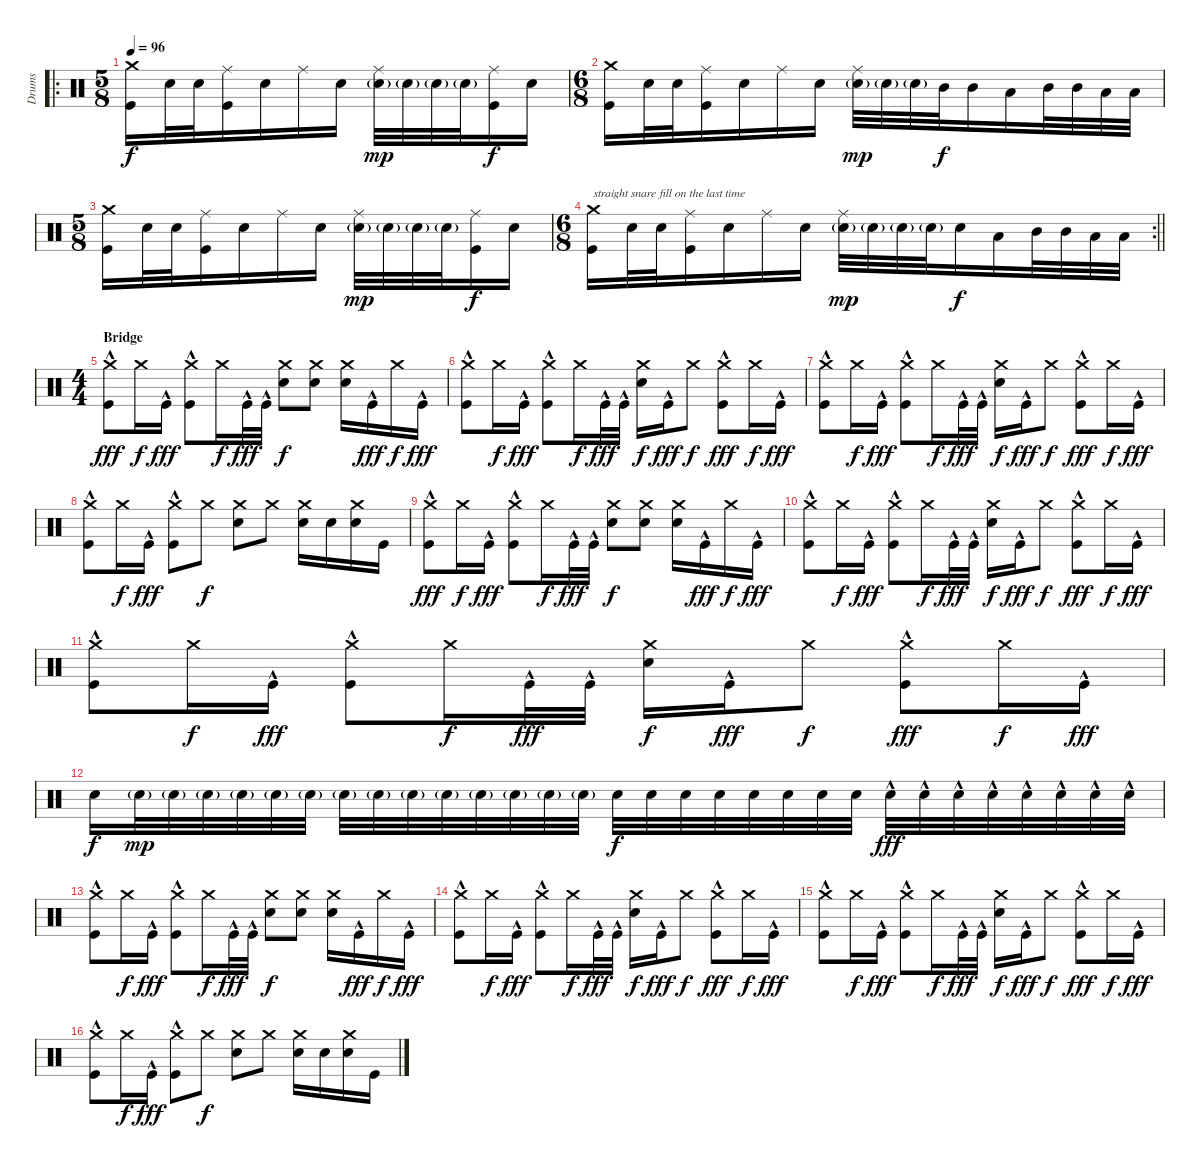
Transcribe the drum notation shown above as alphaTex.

\track ("Drums" "Drums") {instrument percussion}
\staff {score}
\articulation defaults
\ro
\ts (5 8)
\tempo 96
\clef neutral
\ks c
("Crash medium (hit)" "Kick (hit)").16{dy f} "Electric Snare (hit)".32 "Electric Snare (hit)".32 ("Ride (middle)" "Kick (hit)").16 "Electric Snare (hit)".16 "Ride (middle)".16 "Electric Snare (hit)".16 ("Ride (middle)" "Electric Snare (hit)"{g}).32{dy mp} "Electric Snare (hit)"{g}.32 "Electric Snare (hit)"{g}.32 "Electric Snare (hit)"{g}.32 ("Ride (middle)" "Kick (hit)").16{dy f} "Electric Snare (hit)".16 |
\ts (6 8)
("Crash medium (hit)" "Kick (hit)").16 "Electric Snare (hit)".32 "Electric Snare (hit)".32 ("Ride (middle)" "Kick (hit)").16 "Electric Snare (hit)".16 "Ride (middle)".16 "Electric Snare (hit)".16 ("Ride (middle)" "Electric Snare (hit)"{g}).32{dy mp} "Electric Snare (hit)"{g}.32 "Electric Snare (hit)"{g}.32 "Mid Tom (hit)".32{dy f} "Mid Tom (hit)".16 "Low Tom (hit)".16 "Mid Tom (hit)".32 "Mid Tom (hit)".32 "Low Tom (hit)".32 "Low Tom (hit)".32 |
\ts (5 8)
("Crash medium (hit)" "Kick (hit)").16 "Electric Snare (hit)".32 "Electric Snare (hit)".32 ("Ride (middle)" "Kick (hit)").16 "Electric Snare (hit)".16 "Ride (middle)".16 "Electric Snare (hit)".16 ("Ride (middle)" "Electric Snare (hit)"{g}).32{dy mp} "Electric Snare (hit)"{g}.32 "Electric Snare (hit)"{g}.32 "Electric Snare (hit)"{g}.32 ("Ride (middle)" "Kick (hit)").16{dy f} "Electric Snare (hit)".16 |
\rc 2
\ts (6 8)
\barLineRight lightlight
("Crash medium (hit)" "Kick (hit)").16{txt "straight snare fill on the last time"} "Electric Snare (hit)".32 "Electric Snare (hit)".32 ("Ride (middle)" "Kick (hit)").16 "Electric Snare (hit)".16 "Ride (middle)".16 "Electric Snare (hit)".16 ("Ride (middle)" "Electric Snare (hit)"{g}).32{dy mp} "Electric Snare (hit)"{g}.32 "Electric Snare (hit)"{g}.32 "Electric Snare (hit)"{g}.32 "Electric Snare (hit)".16{dy f} "Low Tom (hit)".16 "Mid Tom (hit)".32 "Mid Tom (hit)".32 "Low Tom (hit)".32 "Low Tom (hit)".32 |
\ts (4 4)
\section ("" "Bridge")
("Crash medium (hit)" "Kick (hit)"{hac}).8{dy fff} "Crash medium (hit)".16{dy f} "Kick (hit)"{hac}.16{dy fff} ("Crash medium (hit)" "Kick (hit)"{hac}).8 "Crash medium (hit)".16{dy f} "Kick (hit)"{hac}.32{dy fff} "Kick (hit)"{hac}.32 ("Crash medium (hit)" "Electric Snare (hit)").8{dy f} ("Crash medium (hit)" "Electric Snare (hit)").8 ("Crash medium (hit)" "Electric Snare (hit)").16 "Kick (hit)"{hac}.16{dy fff} "Crash medium (hit)".16{dy f} "Kick (hit)"{hac}.16{dy fff} |
("Crash medium (hit)" "Kick (hit)"{hac}).8 "Crash medium (hit)".16{dy f} "Kick (hit)"{hac}.16{dy fff} ("Crash medium (hit)" "Kick (hit)"{hac}).8 "Crash medium (hit)".16{dy f} "Kick (hit)"{hac}.32{dy fff} "Kick (hit)"{hac}.32 ("Crash medium (hit)" "Electric Snare (hit)").16{dy f} "Kick (hit)"{hac}.16{dy fff} "Crash medium (hit)".8{dy f} ("Crash medium (hit)" "Kick (hit)"{hac}).8{dy fff} "Crash medium (hit)".16{dy f} "Kick (hit)"{hac}.16{dy fff} |
("Crash medium (hit)" "Kick (hit)"{hac}).8 "Crash medium (hit)".16{dy f} "Kick (hit)"{hac}.16{dy fff} ("Crash medium (hit)" "Kick (hit)"{hac}).8 "Crash medium (hit)".16{dy f} "Kick (hit)"{hac}.32{dy fff} "Kick (hit)"{hac}.32 ("Crash medium (hit)" "Electric Snare (hit)").16{dy f} "Kick (hit)"{hac}.16{dy fff} "Crash medium (hit)".8{dy f} ("Crash medium (hit)" "Kick (hit)"{hac}).8{dy fff} "Crash medium (hit)".16{dy f} "Kick (hit)"{hac}.16{dy fff} |
("Crash medium (hit)" "Kick (hit)"{hac}).8 "Crash medium (hit)".16{dy f} "Kick (hit)"{hac}.16{dy fff} ("Crash medium (hit)" "Kick (hit)"{hac}).8 "Crash medium (hit)".8{dy f} ("Crash medium (hit)" "Electric Snare (hit)").8 "Crash medium (hit)".8 ("Crash medium (hit)" "Electric Snare (hit)").16 "Electric Snare (hit)".16 ("Crash medium (hit)" "Electric Snare (hit)").16 "Kick (hit)".16 |
("Crash medium (hit)" "Kick (hit)"{hac}).8{dy fff} "Crash medium (hit)".16{dy f} "Kick (hit)"{hac}.16{dy fff} ("Crash medium (hit)" "Kick (hit)"{hac}).8 "Crash medium (hit)".16{dy f} "Kick (hit)"{hac}.32{dy fff} "Kick (hit)"{hac}.32 ("Crash medium (hit)" "Electric Snare (hit)").8{dy f} ("Crash medium (hit)" "Electric Snare (hit)").8 ("Crash medium (hit)" "Electric Snare (hit)").16 "Kick (hit)"{hac}.16{dy fff} "Crash medium (hit)".16{dy f} "Kick (hit)"{hac}.16{dy fff} |
("Crash medium (hit)" "Kick (hit)"{hac}).8 "Crash medium (hit)".16{dy f} "Kick (hit)"{hac}.16{dy fff} ("Crash medium (hit)" "Kick (hit)"{hac}).8 "Crash medium (hit)".16{dy f} "Kick (hit)"{hac}.32{dy fff} "Kick (hit)"{hac}.32 ("Crash medium (hit)" "Electric Snare (hit)").16{dy f} "Kick (hit)"{hac}.16{dy fff} "Crash medium (hit)".8{dy f} ("Crash medium (hit)" "Kick (hit)"{hac}).8{dy fff} "Crash medium (hit)".16{dy f} "Kick (hit)"{hac}.16{dy fff} |
("Crash medium (hit)" "Kick (hit)"{hac}).8 "Crash medium (hit)".16{dy f} "Kick (hit)"{hac}.16{dy fff} ("Crash medium (hit)" "Kick (hit)"{hac}).8 "Crash medium (hit)".16{dy f} "Kick (hit)"{hac}.32{dy fff} "Kick (hit)"{hac}.32 ("Crash medium (hit)" "Electric Snare (hit)").16{dy f} "Kick (hit)"{hac}.16{dy fff} "Crash medium (hit)".8{dy f} ("Crash medium (hit)" "Kick (hit)"{hac}).8{dy fff} "Crash medium (hit)".16{dy f} "Kick (hit)"{hac}.16{dy fff} |
"Electric Snare (hit)".16{dy f} "Electric Snare (hit)"{g}.32{dy mp} "Electric Snare (hit)"{g}.32 "Electric Snare (hit)"{g}.32 "Electric Snare (hit)"{g}.32 "Electric Snare (hit)"{g}.32 "Electric Snare (hit)"{g}.32 "Electric Snare (hit)"{g}.32 "Electric Snare (hit)"{g}.32 "Electric Snare (hit)"{g}.32 "Electric Snare (hit)"{g}.32 "Electric Snare (hit)"{g}.32 "Electric Snare (hit)"{g}.32 "Electric Snare (hit)"{g}.32 "Electric Snare (hit)"{g}.32 "Electric Snare (hit)".32{dy f} "Electric Snare (hit)".32 "Electric Snare (hit)".32 "Electric Snare (hit)".32 "Electric Snare (hit)".32 "Electric Snare (hit)".32 "Electric Snare (hit)".32 "Electric Snare (hit)".32 "Electric Snare (hit)"{hac}.32{dy fff} "Electric Snare (hit)"{hac}.32 "Electric Snare (hit)"{hac}.32 "Electric Snare (hit)"{hac}.32 "Electric Snare (hit)"{hac}.32 "Electric Snare (hit)"{hac}.32 "Electric Snare (hit)"{hac}.32 "Electric Snare (hit)"{hac}.32 |
("Crash medium (hit)" "Kick (hit)"{hac}).8 "Crash medium (hit)".16{dy f} "Kick (hit)"{hac}.16{dy fff} ("Crash medium (hit)" "Kick (hit)"{hac}).8 "Crash medium (hit)".16{dy f} "Kick (hit)"{hac}.32{dy fff} "Kick (hit)"{hac}.32 ("Crash medium (hit)" "Electric Snare (hit)").8{dy f} ("Crash medium (hit)" "Electric Snare (hit)").8 ("Crash medium (hit)" "Electric Snare (hit)").16 "Kick (hit)"{hac}.16{dy fff} "Crash medium (hit)".16{dy f} "Kick (hit)"{hac}.16{dy fff} |
("Crash medium (hit)" "Kick (hit)"{hac}).8 "Crash medium (hit)".16{dy f} "Kick (hit)"{hac}.16{dy fff} ("Crash medium (hit)" "Kick (hit)"{hac}).8 "Crash medium (hit)".16{dy f} "Kick (hit)"{hac}.32{dy fff} "Kick (hit)"{hac}.32 ("Crash medium (hit)" "Electric Snare (hit)").16{dy f} "Kick (hit)"{hac}.16{dy fff} "Crash medium (hit)".8{dy f} ("Crash medium (hit)" "Kick (hit)"{hac}).8{dy fff} "Crash medium (hit)".16{dy f} "Kick (hit)"{hac}.16{dy fff} |
("Crash medium (hit)" "Kick (hit)"{hac}).8 "Crash medium (hit)".16{dy f} "Kick (hit)"{hac}.16{dy fff} ("Crash medium (hit)" "Kick (hit)"{hac}).8 "Crash medium (hit)".16{dy f} "Kick (hit)"{hac}.32{dy fff} "Kick (hit)"{hac}.32 ("Crash medium (hit)" "Electric Snare (hit)").16{dy f} "Kick (hit)"{hac}.16{dy fff} "Crash medium (hit)".8{dy f} ("Crash medium (hit)" "Kick (hit)"{hac}).8{dy fff} "Crash medium (hit)".16{dy f} "Kick (hit)"{hac}.16{dy fff} |
("Crash medium (hit)" "Kick (hit)"{hac}).8 "Crash medium (hit)".16{dy f} "Kick (hit)"{hac}.16{dy fff} ("Crash medium (hit)" "Kick (hit)"{hac}).8 "Crash medium (hit)".8{dy f} ("Crash medium (hit)" "Electric Snare (hit)").8 "Crash medium (hit)".8 ("Crash medium (hit)" "Electric Snare (hit)").16 "Electric Snare (hit)".16 ("Crash medium (hit)" "Electric Snare (hit)").16 "Kick (hit)".16
